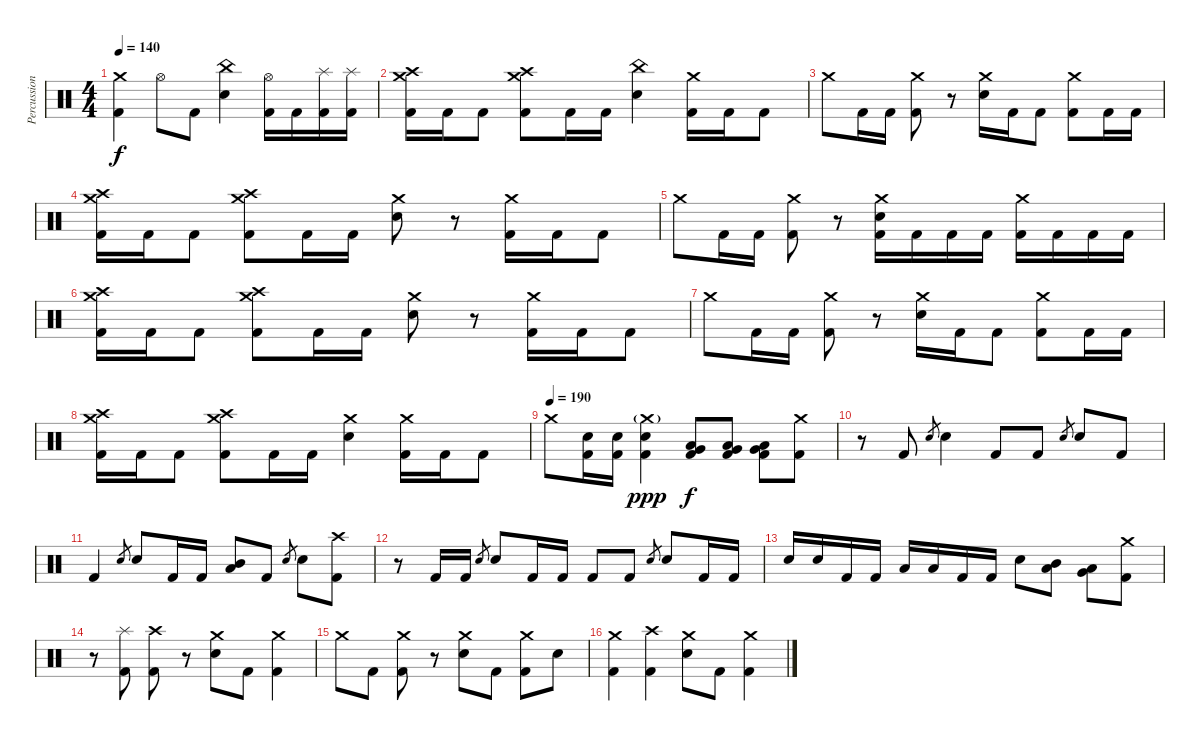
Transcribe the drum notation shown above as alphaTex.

\track ("Percussion" "Percussion") {instrument percussion}
\staff {score}
\articulation defaults
\ts (4 4)
\tempo 140
\clef neutral
\ks c
("Crash medium (hit)" "Kick (hit) 2").4{dy f} "Hi-Hat (open)".8 "Kick (hit) 2".8 ("China (hit)" "Electric Snare (hit)").4 ("Hi-Hat (open)" "Kick (hit) 2").16 "Kick (hit) 2".16 ("Splash (hit)" "Kick (hit) 2").16 ("Splash (hit)" "Kick (hit) 2").16 |
("Crash medium (hit)" "Crash high (hit)" "Kick (hit) 2").16 "Kick (hit) 2".16 "Kick (hit) 2".8 ("Crash medium (hit)" "Crash high (hit)" "Kick (hit) 2").8 "Kick (hit) 2".16 "Kick (hit) 2".16 ("China (hit)" "Electric Snare (hit)").4 ("Crash medium (hit)" "Kick (hit) 2").16 "Kick (hit) 2".16 "Kick (hit) 2".8 |
"Crash medium (hit)".8 "Kick (hit) 2".16 "Kick (hit) 2".16 ("Crash medium (hit)" "Kick (hit) 2").8 r.8 ("Crash medium (hit)" "Electric Snare (hit)").16 "Kick (hit) 2".16 "Kick (hit) 2".8 ("Crash medium (hit)" "Kick (hit) 2").8 "Kick (hit) 2".16 "Kick (hit) 2".16 |
("Crash medium (hit)" "Crash high (hit)" "Kick (hit) 2").16 "Kick (hit) 2".16 "Kick (hit) 2".8 ("Crash medium (hit)" "Crash high (hit)" "Kick (hit) 2").8 "Kick (hit) 2".16 "Kick (hit) 2".16 ("Crash medium (hit)" "Electric Snare (hit)").8 r.8 ("Crash medium (hit)" "Kick (hit) 2").16 "Kick (hit) 2".16 "Kick (hit) 2".8 |
"Crash medium (hit)".8 "Kick (hit) 2".16 "Kick (hit) 2".16 ("Crash medium (hit)" "Kick (hit) 2").8 r.8 ("Crash medium (hit)" "Electric Snare (hit)" "Kick (hit) 2").16 "Kick (hit) 2".16 "Kick (hit) 2".16 "Kick (hit) 2".16 ("Crash medium (hit)" "Kick (hit) 2").16 "Kick (hit) 2".16 "Kick (hit) 2".16 "Kick (hit) 2".16 |
("Crash medium (hit)" "Crash high (hit)" "Kick (hit) 2").16 "Kick (hit) 2".16 "Kick (hit) 2".8 ("Crash medium (hit)" "Crash high (hit)" "Kick (hit) 2").8 "Kick (hit) 2".16 "Kick (hit) 2".16 ("Crash medium (hit)" "Electric Snare (hit)").8 r.8 ("Crash medium (hit)" "Kick (hit) 2").16 "Kick (hit) 2".16 "Kick (hit) 2".8 |
"Crash medium (hit)".8 "Kick (hit) 2".16 "Kick (hit) 2".16 ("Crash medium (hit)" "Kick (hit) 2").8 r.8 ("Crash medium (hit)" "Electric Snare (hit)").16 "Kick (hit) 2".16 "Kick (hit) 2".8 ("Crash medium (hit)" "Kick (hit) 2").8 "Kick (hit) 2".16 "Kick (hit) 2".16 |
("Crash medium (hit)" "Crash high (hit)" "Kick (hit) 2").16 "Kick (hit) 2".16 "Kick (hit) 2".8 ("Crash medium (hit)" "Crash high (hit)" "Kick (hit) 2").8 "Kick (hit) 2".16 "Kick (hit) 2".16 ("Crash medium (hit)" "Electric Snare (hit)").4 ("Crash medium (hit)" "Kick (hit) 2").16 "Kick (hit) 2".16 "Kick (hit) 2".8 |
\tempo (190)
"Crash medium (hit)".8 ("Electric Snare (hit)" "Kick (hit) 2").16 ("Electric Snare (hit)" "Kick (hit) 2").16 ("Crash medium (hit)"{g} "Electric Snare (hit)" "Kick (hit) 2").4{dy ppp} ("Very Low Tom (hit)" "Low Floor Tom (hit)" "Kick (hit) 2").8{dy f} ("Very Low Tom (hit)" "Low Floor Tom (hit)" "Kick (hit) 2").8 ("Very Low Tom (hit)" "Low Floor Tom (hit)" "Kick (hit) 2").8 ("Crash medium (hit)" "Kick (hit) 2").8 |
r.8 "Kick (hit) 2".8 "Electric Snare (hit)".8{gr} "Electric Snare (hit)".4 "Kick (hit) 2".8 "Kick (hit) 2".8 "Electric Snare (hit)".8{gr} "Electric Snare (hit)".8 "Kick (hit) 2".8 |
"Kick (hit) 2".4 "Electric Snare (hit)".8{gr} "Electric Snare (hit)".8 "Kick (hit) 2".16 "Kick (hit) 2".16 ("Mid Tom (hit)" "Low Tom (hit)").8 "Kick (hit) 2".8 "Electric Snare (hit)".8{gr} "Electric Snare (hit)".8 ("Crash high (hit)" "Kick (hit) 2").8 |
r.8 "Kick (hit) 2".16 "Kick (hit) 2".16 "Electric Snare (hit)".8{gr} "Electric Snare (hit)".8 "Kick (hit) 2".16 "Kick (hit) 2".16 "Kick (hit) 2".8 "Kick (hit) 2".8 "Electric Snare (hit)".8{gr} "Electric Snare (hit)".8 "Kick (hit) 2".16 "Kick (hit) 2".16 |
"Electric Snare (hit)".16 "Electric Snare (hit)".16 "Kick (hit) 2".16 "Kick (hit) 2".16 "Low Tom (hit)".16 "Low Tom (hit)".16 "Kick (hit) 2".16 "Kick (hit) 2".16 "Electric Snare (hit)".8 ("Mid Tom (hit)" "Low Tom (hit)").8 ("Very Low Tom (hit)" "Low Floor Tom (hit)").8 ("Crash medium (hit)" "Kick (hit) 2").8 |
r.8 ("Splash (hit)" "Kick (hit) 2").8 ("Crash high (hit)" "Kick (hit) 2").8 r.8 ("Crash medium (hit)" "Electric Snare (hit)").8 "Kick (hit) 2".8 ("Crash medium (hit)" "Kick (hit) 2").4 |
"Crash medium (hit)".8 "Kick (hit) 2".8 ("Crash medium (hit)" "Kick (hit) 2").8 r.8 ("Crash medium (hit)" "Electric Snare (hit)").8 "Kick (hit) 2".8 ("Crash medium (hit)" "Kick (hit) 2").8 "Electric Snare (hit)".8 |
("Crash medium (hit)" "Kick (hit) 2").4 ("Crash high (hit)" "Kick (hit) 2").4 ("Crash medium (hit)" "Electric Snare (hit)").8 "Kick (hit) 2".8 ("Crash medium (hit)" "Kick (hit) 2").4
